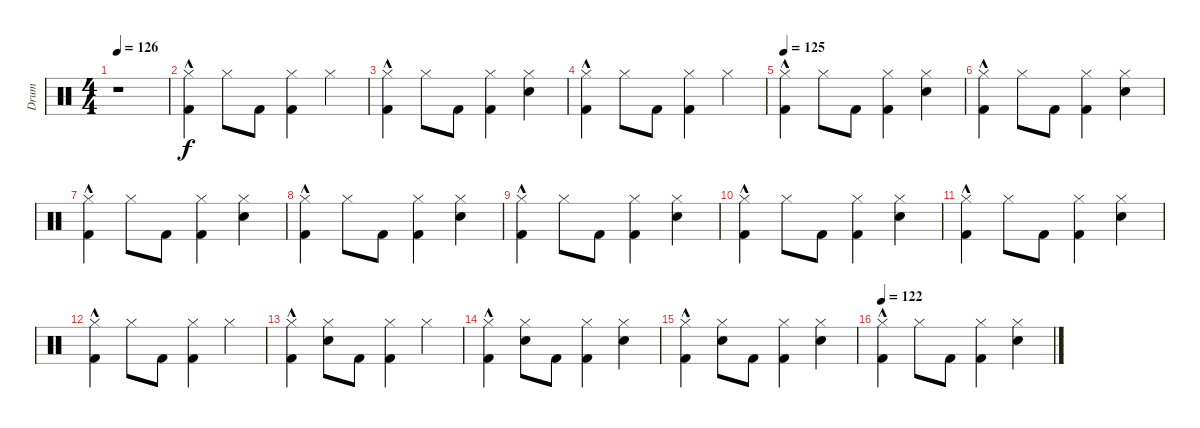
\track ("Drum" "Drum") {instrument percussion}
\staff {score}
\articulation defaults
\ts (4 4)
\tempo 126
\clef neutral
\ks c
r.1{dy f} |
("Hi-Hat (closed)" "Kick (hit) 2"{hac}).4 "Hi-Hat (closed)".8 "Kick (hit) 2".8 ("Hi-Hat (closed)" "Kick (hit) 2").4 "Hi-Hat (closed)".4 |
("Hi-Hat (closed)" "Kick (hit) 2"{hac}).4 "Hi-Hat (closed)".8 "Kick (hit) 2".8 ("Hi-Hat (closed)" "Kick (hit) 2").4 ("Hi-Hat (closed)" "Snare (hit) 2").4 |
("Hi-Hat (closed)" "Kick (hit) 2"{hac}).4 "Hi-Hat (closed)".8 "Kick (hit) 2".8 ("Hi-Hat (closed)" "Kick (hit) 2").4 "Hi-Hat (closed)".4 |
\tempo 125
("Hi-Hat (closed)" "Kick (hit) 2"{hac}).4 "Hi-Hat (closed)".8 "Kick (hit) 2".8 ("Hi-Hat (closed)" "Kick (hit) 2").4 ("Electric Snare (hit)" "Hi-Hat (closed)").4 |
("Hi-Hat (closed)" "Kick (hit) 2"{hac}).4 "Hi-Hat (closed)".8 "Kick (hit) 2".8 ("Hi-Hat (closed)" "Kick (hit) 2").4 ("Hi-Hat (closed)" "Electric Snare (hit)").4 |
("Hi-Hat (closed)" "Kick (hit) 2"{hac}).4 "Hi-Hat (closed)".8 "Kick (hit) 2".8 ("Hi-Hat (closed)" "Kick (hit) 2").4 ("Hi-Hat (closed)" "Electric Snare (hit)").4 |
("Hi-Hat (closed)" "Kick (hit) 2"{hac}).4 "Hi-Hat (closed)".8 "Kick (hit) 2".8 ("Hi-Hat (closed)" "Kick (hit) 2").4 ("Hi-Hat (closed)" "Electric Snare (hit)").4 |
("Hi-Hat (closed)" "Kick (hit) 2"{hac}).4 "Hi-Hat (closed)".8 "Kick (hit) 2".8 ("Hi-Hat (closed)" "Kick (hit) 2").4 ("Hi-Hat (closed)" "Electric Snare (hit)").4 |
("Hi-Hat (closed)" "Kick (hit) 2"{hac}).4 "Hi-Hat (closed)".8 "Kick (hit) 2".8 ("Hi-Hat (closed)" "Kick (hit) 2").4 ("Hi-Hat (closed)" "Electric Snare (hit)").4 |
("Hi-Hat (closed)" "Kick (hit) 2"{hac}).4 "Hi-Hat (closed)".8 "Kick (hit) 2".8 ("Hi-Hat (closed)" "Kick (hit) 2").4 ("Hi-Hat (closed)" "Electric Snare (hit)").4 |
("Hi-Hat (closed)" "Kick (hit) 2"{hac}).4 "Hi-Hat (closed)".8 "Kick (hit) 2".8 ("Hi-Hat (closed)" "Kick (hit) 2").4 "Hi-Hat (closed)".4 |
("Hi-Hat (closed)" "Kick (hit) 2"{hac}).4 ("Hi-Hat (closed)" "Electric Snare (hit)").8 "Kick (hit) 2".8 ("Hi-Hat (closed)" "Kick (hit) 2").4 "Hi-Hat (closed)".4 |
("Hi-Hat (closed)" "Kick (hit) 2"{hac}).4 ("Hi-Hat (closed)" "Electric Snare (hit)").8 "Kick (hit) 2".8 ("Hi-Hat (closed)" "Kick (hit) 2").4 ("Hi-Hat (closed)" "Electric Snare (hit)").4 |
("Hi-Hat (closed)" "Kick (hit) 2"{hac}).4 ("Hi-Hat (closed)" "Electric Snare (hit)").8 "Kick (hit) 2".8 ("Hi-Hat (closed)" "Kick (hit) 2").4 ("Hi-Hat (closed)" "Electric Snare (hit)").4 |
\tempo 122
("Hi-Hat (closed)" "Kick (hit) 2"{hac}).4 "Hi-Hat (closed)".8 "Kick (hit) 2".8 ("Hi-Hat (closed)" "Kick (hit) 2").4 ("Hi-Hat (closed)" "Electric Snare (hit)").4
